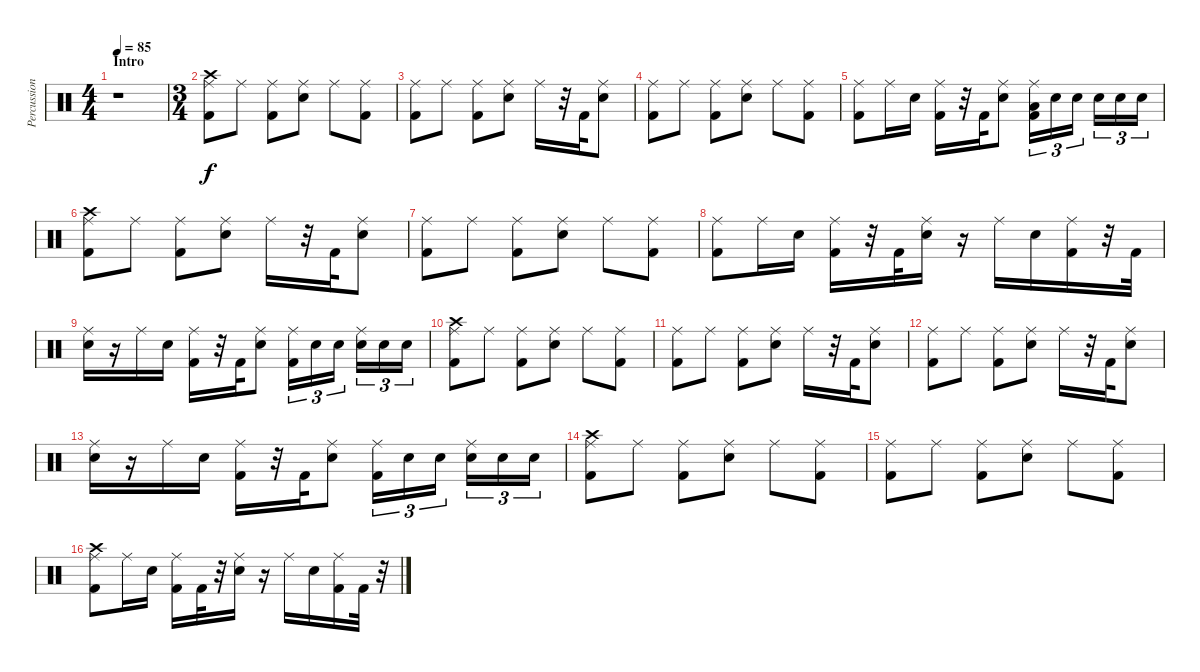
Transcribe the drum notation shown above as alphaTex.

\track ("Percussion" "Percussion") {instrument percussion}
\staff {score}
\articulation defaults
\ts (4 4)
\section ("" "Intro")
\tempo 85
\clef neutral
\ks c
r.1{dy f} |
\ts (3 4)
("Ride (middle)" "Crash high (hit)" "Kick (hit) 2").8 "Ride (middle)".8 ("Ride (middle)" "Kick (hit) 2").8 ("Ride (middle)" "Electric Snare (hit)").8 "Ride (middle)".8 ("Ride (middle)" "Kick (hit) 2").8 |
("Ride (middle)" "Kick (hit) 2").8 "Ride (middle)".8 ("Ride (middle)" "Kick (hit) 2").8 ("Ride (middle)" "Electric Snare (hit)").8 "Ride (middle)".16 r.32 "Kick (hit) 2".32 ("Ride (middle)" "Electric Snare (hit)").8 |
("Ride (middle)" "Kick (hit) 2").8 "Ride (middle)".8 ("Ride (middle)" "Kick (hit) 2").8 ("Ride (middle)" "Electric Snare (hit)").8 "Ride (middle)".8 ("Ride (middle)" "Kick (hit) 2").8 |
("Ride (middle)" "Kick (hit) 2").8 "Ride (middle)".16 "Electric Snare (hit)".16 ("Ride (middle)" "Kick (hit) 2").16 r.32 "Kick (hit) 2".32 ("Ride (middle)" "Electric Snare (hit)").8 ("Ride (middle)" "Low Tom (hit)" "Kick (hit) 2").16{tu (3 2)} "Electric Snare (hit)".16{tu (3 2)} "Electric Snare (hit)".16{tu (3 2) beam splitsecondary} "Electric Snare (hit)".16{tu (3 2)} "Electric Snare (hit)".16{tu (3 2)} "Electric Snare (hit)".16{tu (3 2)} |
("Ride (middle)" "Crash high (hit)" "Kick (hit) 2").8 "Ride (middle)".8 ("Ride (middle)" "Kick (hit) 2").8 ("Ride (middle)" "Electric Snare (hit)").8 "Ride (middle)".16 r.32 "Kick (hit) 2".32 ("Ride (middle)" "Electric Snare (hit)").8 |
("Ride (middle)" "Kick (hit) 2").8 "Ride (middle)".8 ("Ride (middle)" "Kick (hit) 2").8 ("Ride (middle)" "Electric Snare (hit)").8 "Ride (middle)".8 ("Ride (middle)" "Kick (hit) 2").8 |
("Ride (middle)" "Kick (hit) 2").8 "Ride (middle)".16 "Electric Snare (hit)".16 ("Ride (middle)" "Kick (hit) 2").16 r.32 "Kick (hit) 2".32 ("Ride (middle)" "Electric Snare (hit)").16 r.16 "Ride (middle)".16 "Electric Snare (hit)".16 ("Ride (middle)" "Kick (hit) 2").16 r.32 "Kick (hit) 2".32 |
("Ride (middle)" "Electric Snare (hit)").16 r.16 "Ride (middle)".16 "Electric Snare (hit)".16 ("Ride (middle)" "Kick (hit) 2").16 r.32 "Kick (hit) 2".32 ("Ride (middle)" "Electric Snare (hit)").8 ("Ride (middle)" "Kick (hit) 2").16{tu (3 2)} "Electric Snare (hit)".16{tu (3 2)} "Electric Snare (hit)".16{tu (3 2) beam splitsecondary} ("Ride (middle)" "Electric Snare (hit)").16{tu (3 2)} "Electric Snare (hit)".16{tu (3 2)} "Electric Snare (hit)".16{tu (3 2)} |
("Ride (middle)" "Crash high (hit)" "Kick (hit) 2").8 "Ride (middle)".8 ("Ride (middle)" "Kick (hit) 2").8 ("Ride (middle)" "Electric Snare (hit)").8 "Ride (middle)".8 ("Ride (middle)" "Kick (hit) 2").8 |
("Ride (middle)" "Kick (hit) 2").8 "Ride (middle)".8 ("Ride (middle)" "Kick (hit) 2").8 ("Ride (middle)" "Electric Snare (hit)").8 "Ride (middle)".16 r.32 "Kick (hit) 2".32 ("Ride (middle)" "Electric Snare (hit)").8 |
("Ride (middle)" "Kick (hit) 2").8 "Ride (middle)".8 ("Ride (middle)" "Kick (hit) 2").8 ("Ride (middle)" "Electric Snare (hit)").8 "Ride (middle)".16 r.32 "Kick (hit) 2".32 ("Ride (middle)" "Electric Snare (hit)").8 |
("Ride (middle)" "Electric Snare (hit)").16 r.16 "Ride (middle)".16 "Electric Snare (hit)".16 ("Ride (middle)" "Kick (hit) 2").16 r.32 "Kick (hit) 2".32 ("Ride (middle)" "Electric Snare (hit)").8 ("Ride (middle)" "Kick (hit) 2").16{tu (3 2)} "Electric Snare (hit)".16{tu (3 2)} "Electric Snare (hit)".16{tu (3 2) beam splitsecondary} ("Ride (middle)" "Electric Snare (hit)").16{tu (3 2)} "Electric Snare (hit)".16{tu (3 2)} "Electric Snare (hit)".16{tu (3 2)} |
("Ride (middle)" "Crash high (hit)" "Kick (hit) 2").8 "Ride (middle)".8 ("Ride (middle)" "Kick (hit) 2").8 ("Ride (middle)" "Electric Snare (hit)").8 "Ride (middle)".8 ("Ride (middle)" "Kick (hit) 2").8 |
("Ride (middle)" "Kick (hit) 2").8 "Ride (middle)".8 ("Ride (middle)" "Kick (hit) 2").8 ("Ride (middle)" "Electric Snare (hit)").8 "Ride (middle)".8 ("Ride (middle)" "Kick (hit) 2").8 |
("Ride (middle)" "Crash high (hit)" "Kick (hit) 2").8 "Ride (middle)".16 "Electric Snare (hit)".16 ("Ride (middle)" "Kick (hit) 2").16 "Kick (hit) 2".32 r.32 ("Ride (middle)" "Electric Snare (hit)").16 r.16 "Ride (middle)".16 "Electric Snare (hit)".16 ("Ride (middle)" "Kick (hit) 2").16 "Kick (hit) 2".32 r.32
